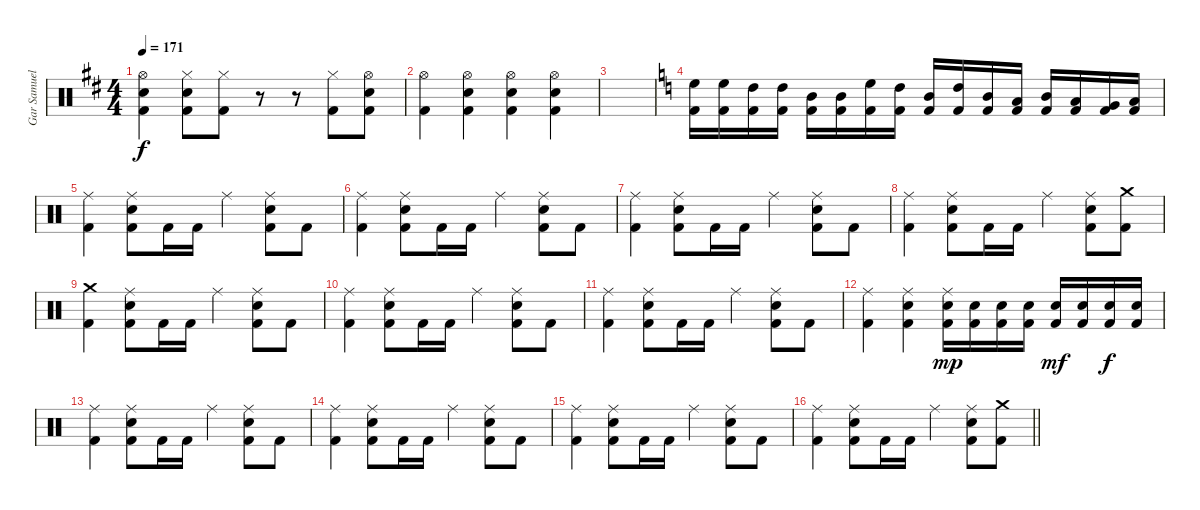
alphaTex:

\track ("Gar Samuelson" "Gar Samuel") {instrument percussion}
\staff {score}
\articulation defaults
\ts (4 4)
\tempo 171
\clef neutral
\ks d
("Hi-Hat (open)" "Snare (hit) 2" "Kick (hit) 2").4{dy f} ("Hi-Hat (closed)" "Snare (hit) 2" "Kick (hit) 2").8 ("Hi-Hat (closed)" "Kick (hit) 2").8 r.8 r.8 ("Hi-Hat (closed)" "Kick (hit) 2").8 ("Hi-Hat (open)" "Snare (hit) 2" "Kick (hit) 2").8 |
("Hi-Hat (open)" "Kick (hit) 2").4 ("Hi-Hat (open)" "Snare (hit) 2" "Kick (hit) 2").4 ("Hi-Hat (open)" "Snare (hit) 2" "Kick (hit) 2").4 ("Hi-Hat (open)" "Snare (hit) 2" "Kick (hit) 2").4 |
|
\ks c
("High Floor Tom (hit)" "Kick (hit) 2").16 ("High Floor Tom (hit)" "Kick (hit) 2").16 ("High Tom (hit)" "Kick (hit) 2").16 ("High Tom (hit)" "Kick (hit) 2").16 ("Mid Tom (hit)" "Kick (hit) 2").16 ("Mid Tom (hit)" "Kick (hit) 2").16 ("High Floor Tom (hit)" "Kick (hit) 2").16 ("High Tom (hit)" "Kick (hit) 2").16 ("Mid Tom (hit)" "Kick (hit) 2").16 ("High Tom (hit)" "Kick (hit) 2").16 ("Mid Tom (hit)" "Kick (hit) 2").16 ("Low Tom (hit)" "Kick (hit) 2").16 ("Mid Tom (hit)" "Kick (hit) 2").16 ("Low Tom (hit)" "Kick (hit) 2").16 ("Very Low Tom (hit)" "Kick (hit) 2").16 ("Low Floor Tom (hit)" "Kick (hit) 2").16 |
("Ride (middle)" "Kick (hit) 2").4 ("Ride (middle)" "Snare (hit) 2" "Kick (hit) 2").8 "Kick (hit) 2".16 "Kick (hit) 2".16 "Ride (middle)".4 ("Ride (middle)" "Snare (hit) 2" "Kick (hit) 2").8 "Kick (hit) 2".8 |
("Ride (middle)" "Kick (hit) 2").4 ("Ride (middle)" "Snare (hit) 2" "Kick (hit) 2").8 "Kick (hit) 2".16 "Kick (hit) 2".16 "Ride (middle)".4 ("Ride (middle)" "Snare (hit) 2" "Kick (hit) 2").8 "Kick (hit) 2".8 |
("Ride (middle)" "Kick (hit) 2").4 ("Ride (middle)" "Snare (hit) 2" "Kick (hit) 2").8 "Kick (hit) 2".16 "Kick (hit) 2".16 "Ride (middle)".4 ("Ride (middle)" "Snare (hit) 2" "Kick (hit) 2").8 "Kick (hit) 2".8 |
("Ride (middle)" "Kick (hit) 2").4 ("Ride (middle)" "Snare (hit) 2" "Kick (hit) 2").8 "Kick (hit) 2".16 "Kick (hit) 2".16 "Ride (middle)".4 ("Ride (middle)" "Snare (hit) 2" "Kick (hit) 2").8 ("Crash medium (hit)" "Kick (hit) 2").8 |
("Crash medium (hit)" "Kick (hit) 2").4 ("Ride (middle)" "Snare (hit) 2" "Kick (hit) 2").8 "Kick (hit) 2".16 "Kick (hit) 2".16 "Ride (middle)".4 ("Ride (middle)" "Snare (hit) 2" "Kick (hit) 2").8 "Kick (hit) 2".8 |
("Ride (middle)" "Kick (hit) 2").4 ("Ride (middle)" "Snare (hit) 2" "Kick (hit) 2").8 "Kick (hit) 2".16 "Kick (hit) 2".16 "Ride (middle)".4 ("Ride (middle)" "Snare (hit) 2" "Kick (hit) 2").8 "Kick (hit) 2".8 |
("Ride (middle)" "Kick (hit) 2").4 ("Ride (middle)" "Snare (hit) 2" "Kick (hit) 2").8 "Kick (hit) 2".16 "Kick (hit) 2".16 "Ride (middle)".4 ("Ride (middle)" "Snare (hit) 2" "Kick (hit) 2").8 "Kick (hit) 2".8 |
("Ride (middle)" "Kick (hit) 2").4 ("Ride (middle)" "Snare (hit) 2" "Kick (hit) 2").4 ("Ride (middle)" "Snare (hit) 2" "Kick (hit) 2").16{dy mp} ("Snare (hit) 2" "Kick (hit) 2").16 ("Snare (hit) 2" "Kick (hit) 2").16 ("Snare (hit) 2" "Kick (hit) 2").16 ("Snare (hit) 2" "Kick (hit) 2").16{dy mf} ("Snare (hit) 2" "Kick (hit) 2").16 ("Snare (hit) 2" "Kick (hit) 2").16{dy f} ("Snare (hit) 2" "Kick (hit) 2").16 |
("Ride (middle)" "Kick (hit) 2").4 ("Ride (middle)" "Snare (hit) 2" "Kick (hit) 2").8 "Kick (hit) 2".16 "Kick (hit) 2".16 "Ride (middle)".4 ("Ride (middle)" "Snare (hit) 2" "Kick (hit) 2").8 "Kick (hit) 2".8 |
("Ride (middle)" "Kick (hit) 2").4 ("Ride (middle)" "Snare (hit) 2" "Kick (hit) 2").8 "Kick (hit) 2".16 "Kick (hit) 2".16 "Ride (middle)".4 ("Ride (middle)" "Snare (hit) 2" "Kick (hit) 2").8 "Kick (hit) 2".8 |
("Ride (middle)" "Kick (hit) 2").4 ("Ride (middle)" "Snare (hit) 2" "Kick (hit) 2").8 "Kick (hit) 2".16 "Kick (hit) 2".16 "Ride (middle)".4 ("Ride (middle)" "Snare (hit) 2" "Kick (hit) 2").8 "Kick (hit) 2".8 |
\barLineRight lightlight
("Ride (middle)" "Kick (hit) 2").4 ("Ride (middle)" "Snare (hit) 2" "Kick (hit) 2").8 "Kick (hit) 2".16 "Kick (hit) 2".16 "Ride (middle)".4 ("Ride (middle)" "Snare (hit) 2" "Kick (hit) 2").8 ("Crash medium (hit)" "Kick (hit) 2").8
